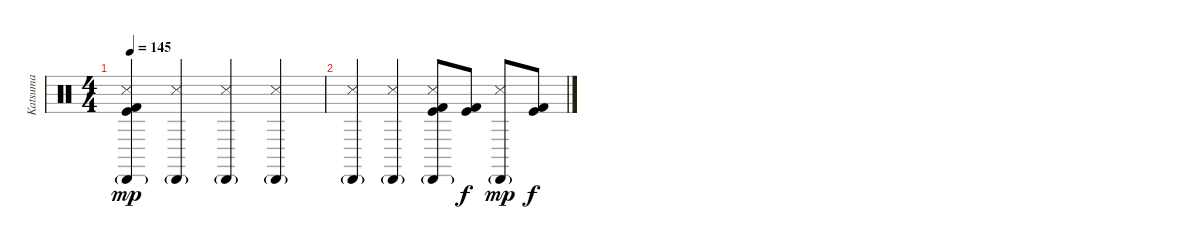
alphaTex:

\track ("Katsuma " "Katsuma ") {instrument percussion}
\staff {score}
\articulation defaults
\ts (4 4)
\tempo 145
\clef neutral
\ks c
("Snare (side stick) 3" "Cabasa (hit)"{g} "Kick (hit) 2" "Kick (hit)").4{dy mp} ("Snare (side stick) 3" "Cabasa (hit)"{g}).4 ("Snare (side stick) 3" "Cabasa (hit)"{g}).4 ("Snare (side stick) 3" "Cabasa (hit)"{g}).4 |
("Snare (side stick) 3" "Cabasa (hit)"{g}).4 ("Snare (side stick) 3" "Cabasa (hit)"{g}).4 ("Snare (side stick) 3" "Cabasa (hit)"{g} "Kick (hit)" "Kick (hit) 2").8 ("Kick (hit)" "Kick (hit) 2").8{dy f} ("Snare (side stick) 3" "Cabasa (hit)"{g}).8{dy mp} ("Kick (hit)" "Kick (hit) 2").8{dy f}
